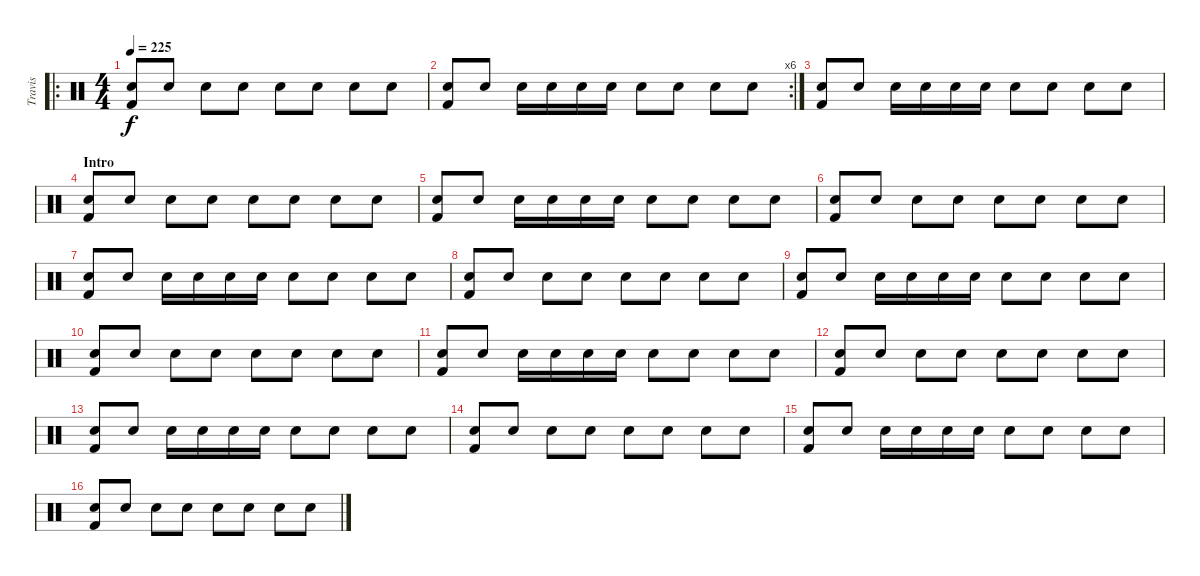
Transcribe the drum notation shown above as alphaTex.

\track ("Travis" "Travis") {instrument percussion}
\staff {score}
\articulation defaults
\ro
\ts (4 4)
\tempo 225
\clef neutral
\ks c
("Snare (hit) 2" "Kick (hit) 2").8{dy f} "Snare (hit) 2".8 "Snare (hit) 2".8 "Electric Snare (hit)".8 "Snare (hit) 2".8 "Snare (hit) 2".8 "Electric Snare (hit)".8 "Snare (hit) 2".8 |
\rc 6
("Snare (hit) 2" "Kick (hit) 2").8 "Snare (hit) 2".8 "Snare (hit) 2".16 "Snare (hit) 2".16 "Snare (hit) 2".16 "Snare (hit) 2".16 "Electric Snare (hit)".8 "Electric Snare (hit)".8 "Snare (hit) 2".8 "Snare (hit) 2".8 |
("Snare (hit) 2" "Kick (hit) 2").8 "Snare (hit) 2".8 "Snare (hit) 2".16 "Snare (hit) 2".16 "Snare (hit) 2".16 "Snare (hit) 2".16 "Electric Snare (hit)".8 "Electric Snare (hit)".8 "Electric Snare (hit)".8 "Electric Snare (hit)".8 |
\section ("" "Intro")
("Snare (hit) 2" "Kick (hit) 2").8{volume 7} "Snare (hit) 2".8 "Snare (hit) 2".8 "Electric Snare (hit)".8 "Snare (hit) 2".8 "Snare (hit) 2".8 "Electric Snare (hit)".8 "Snare (hit) 2".8 |
("Snare (hit) 2" "Kick (hit) 2").8 "Snare (hit) 2".8 "Snare (hit) 2".16 "Snare (hit) 2".16 "Snare (hit) 2".16 "Snare (hit) 2".16 "Electric Snare (hit)".8 "Electric Snare (hit)".8 "Snare (hit) 2".8 "Snare (hit) 2".8 |
("Snare (hit) 2" "Kick (hit) 2").8 "Snare (hit) 2".8 "Snare (hit) 2".8 "Electric Snare (hit)".8 "Snare (hit) 2".8 "Snare (hit) 2".8 "Electric Snare (hit)".8 "Snare (hit) 2".8 |
("Snare (hit) 2" "Kick (hit) 2").8 "Snare (hit) 2".8 "Snare (hit) 2".16 "Snare (hit) 2".16 "Snare (hit) 2".16 "Snare (hit) 2".16 "Electric Snare (hit)".8 "Electric Snare (hit)".8 "Snare (hit) 2".8 "Snare (hit) 2".8 |
("Snare (hit) 2" "Kick (hit) 2").8 "Snare (hit) 2".8 "Snare (hit) 2".8 "Electric Snare (hit)".8 "Snare (hit) 2".8 "Snare (hit) 2".8 "Electric Snare (hit)".8 "Snare (hit) 2".8 |
("Snare (hit) 2" "Kick (hit) 2").8 "Snare (hit) 2".8 "Snare (hit) 2".16 "Snare (hit) 2".16 "Snare (hit) 2".16 "Snare (hit) 2".16 "Electric Snare (hit)".8 "Electric Snare (hit)".8 "Snare (hit) 2".8 "Snare (hit) 2".8 |
("Snare (hit) 2" "Kick (hit) 2").8 "Snare (hit) 2".8 "Snare (hit) 2".8 "Electric Snare (hit)".8 "Snare (hit) 2".8 "Snare (hit) 2".8 "Electric Snare (hit)".8 "Snare (hit) 2".8 |
("Snare (hit) 2" "Kick (hit) 2").8 "Snare (hit) 2".8 "Snare (hit) 2".16 "Snare (hit) 2".16 "Snare (hit) 2".16 "Snare (hit) 2".16 "Electric Snare (hit)".8 "Electric Snare (hit)".8 "Snare (hit) 2".8 "Snare (hit) 2".8 |
("Snare (hit) 2" "Kick (hit) 2").8 "Snare (hit) 2".8 "Snare (hit) 2".8 "Electric Snare (hit)".8 "Snare (hit) 2".8 "Snare (hit) 2".8 "Electric Snare (hit)".8 "Snare (hit) 2".8 |
("Snare (hit) 2" "Kick (hit) 2").8 "Snare (hit) 2".8 "Snare (hit) 2".16 "Snare (hit) 2".16 "Snare (hit) 2".16 "Snare (hit) 2".16 "Electric Snare (hit)".8 "Electric Snare (hit)".8 "Snare (hit) 2".8 "Snare (hit) 2".8 |
("Snare (hit) 2" "Kick (hit) 2").8 "Snare (hit) 2".8 "Snare (hit) 2".8 "Electric Snare (hit)".8 "Snare (hit) 2".8 "Snare (hit) 2".8 "Electric Snare (hit)".8 "Snare (hit) 2".8 |
("Snare (hit) 2" "Kick (hit) 2").8 "Snare (hit) 2".8 "Snare (hit) 2".16 "Snare (hit) 2".16 "Snare (hit) 2".16 "Snare (hit) 2".16 "Electric Snare (hit)".8 "Electric Snare (hit)".8 "Snare (hit) 2".8 "Snare (hit) 2".8 |
("Snare (hit) 2" "Kick (hit) 2").8 "Snare (hit) 2".8 "Snare (hit) 2".8 "Electric Snare (hit)".8 "Snare (hit) 2".8 "Snare (hit) 2".8 "Electric Snare (hit)".8 "Snare (hit) 2".8
